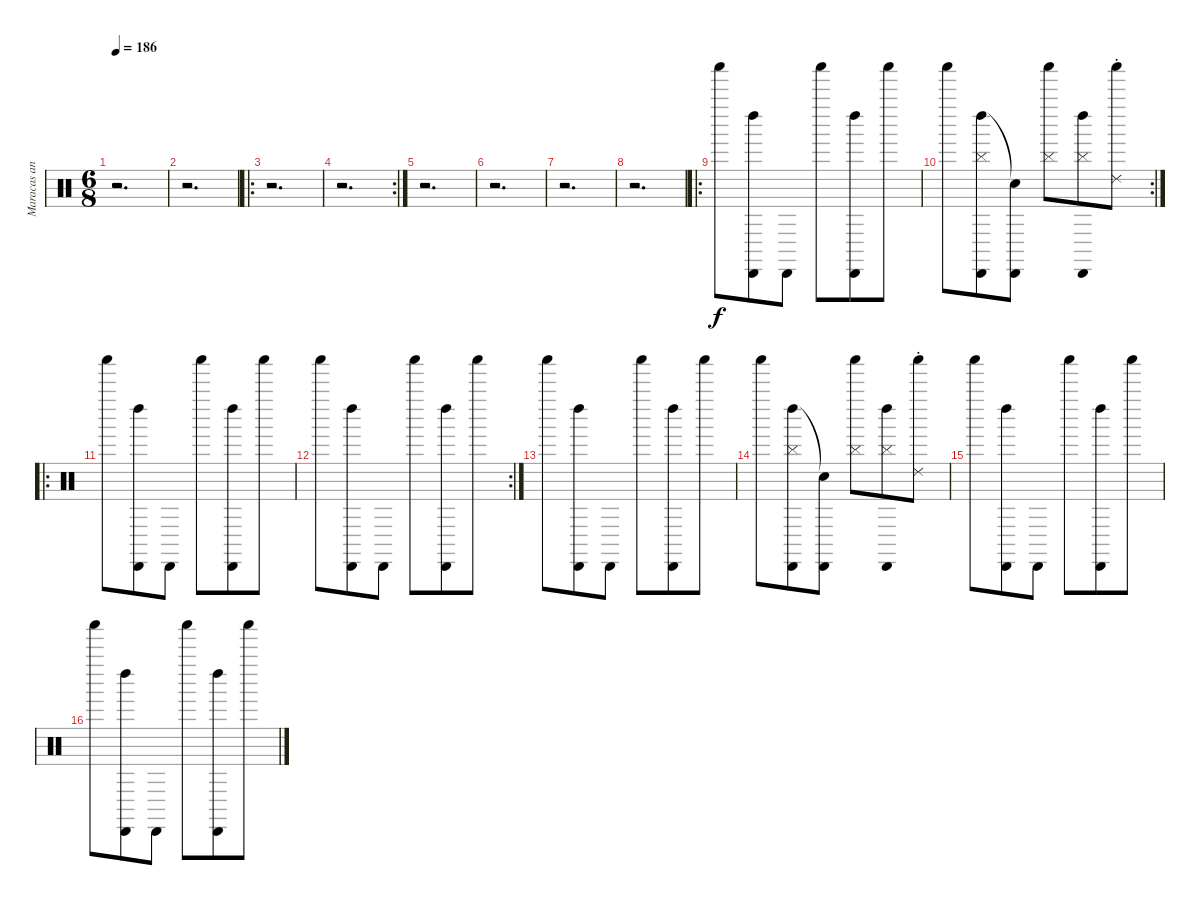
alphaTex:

\track ("Maracas and xtras" "Maracas an") {instrument percussion}
\staff {score}
\articulation defaults
\ts (6 8)
\tempo 186
\clef neutral
\ks c
r.2{d dy f} |
r.2{d} |
\ro
r.2{d} |
\rc 2
r.2{d} |
r.2{d} |
r.2{d} |
r.2{d} |
r.2{d} |
\ro "Shaker (hit)".8
("Left Maraca (hit)" "Cabasa (hit)").8 "Cabasa (hit)".8 "Shaker (hit)".8 ("Left Maraca (hit)" "Cabasa (hit)").8 "Shaker (hit)".8 |
\rc 2 "Shaker (hit)".8
("Left Maraca (hit)" "Cymbal (hit)" "Cabasa (hit)").8 ("Snare (hit)"{t} "Cabasa (hit)").8 ("Shaker (hit)" "Cymbal (hit)").8 ("Left Maraca (hit)" "Cymbal (hit)" "Cabasa (hit)").8 ("Shaker (hit)" "Ride (choke) 2").8 |
\ro "Shaker (hit)".8
("Left Maraca (hit)" "Cabasa (hit)").8 "Cabasa (hit)".8 "Shaker (hit)".8 ("Left Maraca (hit)" "Cabasa (hit)").8 "Shaker (hit)".8 |
\rc 2 "Shaker (hit)".8
("Left Maraca (hit)" "Cabasa (hit)").8 "Cabasa (hit)".8 "Shaker (hit)".8 ("Left Maraca (hit)" "Cabasa (hit)").8 "Shaker (hit)".8 |
"Shaker (hit)".8 ("Left Maraca (hit)" "Cabasa (hit)").8 "Cabasa (hit)".8 "Shaker (hit)".8 ("Left Maraca (hit)" "Cabasa (hit)").8 "Shaker (hit)".8 |
"Shaker (hit)".8 ("Left Maraca (hit)" "Cymbal (hit)" "Cabasa (hit)").8 ("Snare (hit)"{t} "Cabasa (hit)").8 ("Shaker (hit)" "Cymbal (hit)").8 ("Left Maraca (hit)" "Cymbal (hit)" "Cabasa (hit)").8 ("Shaker (hit)" "Ride (choke) 2").8 |
"Shaker (hit)".8 ("Left Maraca (hit)" "Cabasa (hit)").8 "Cabasa (hit)".8 "Shaker (hit)".8 ("Left Maraca (hit)" "Cabasa (hit)").8 "Shaker (hit)".8 |
"Shaker (hit)".8 ("Left Maraca (hit)" "Cabasa (hit)").8 "Cabasa (hit)".8 "Shaker (hit)".8 ("Left Maraca (hit)" "Cabasa (hit)").8 "Shaker (hit)".8
